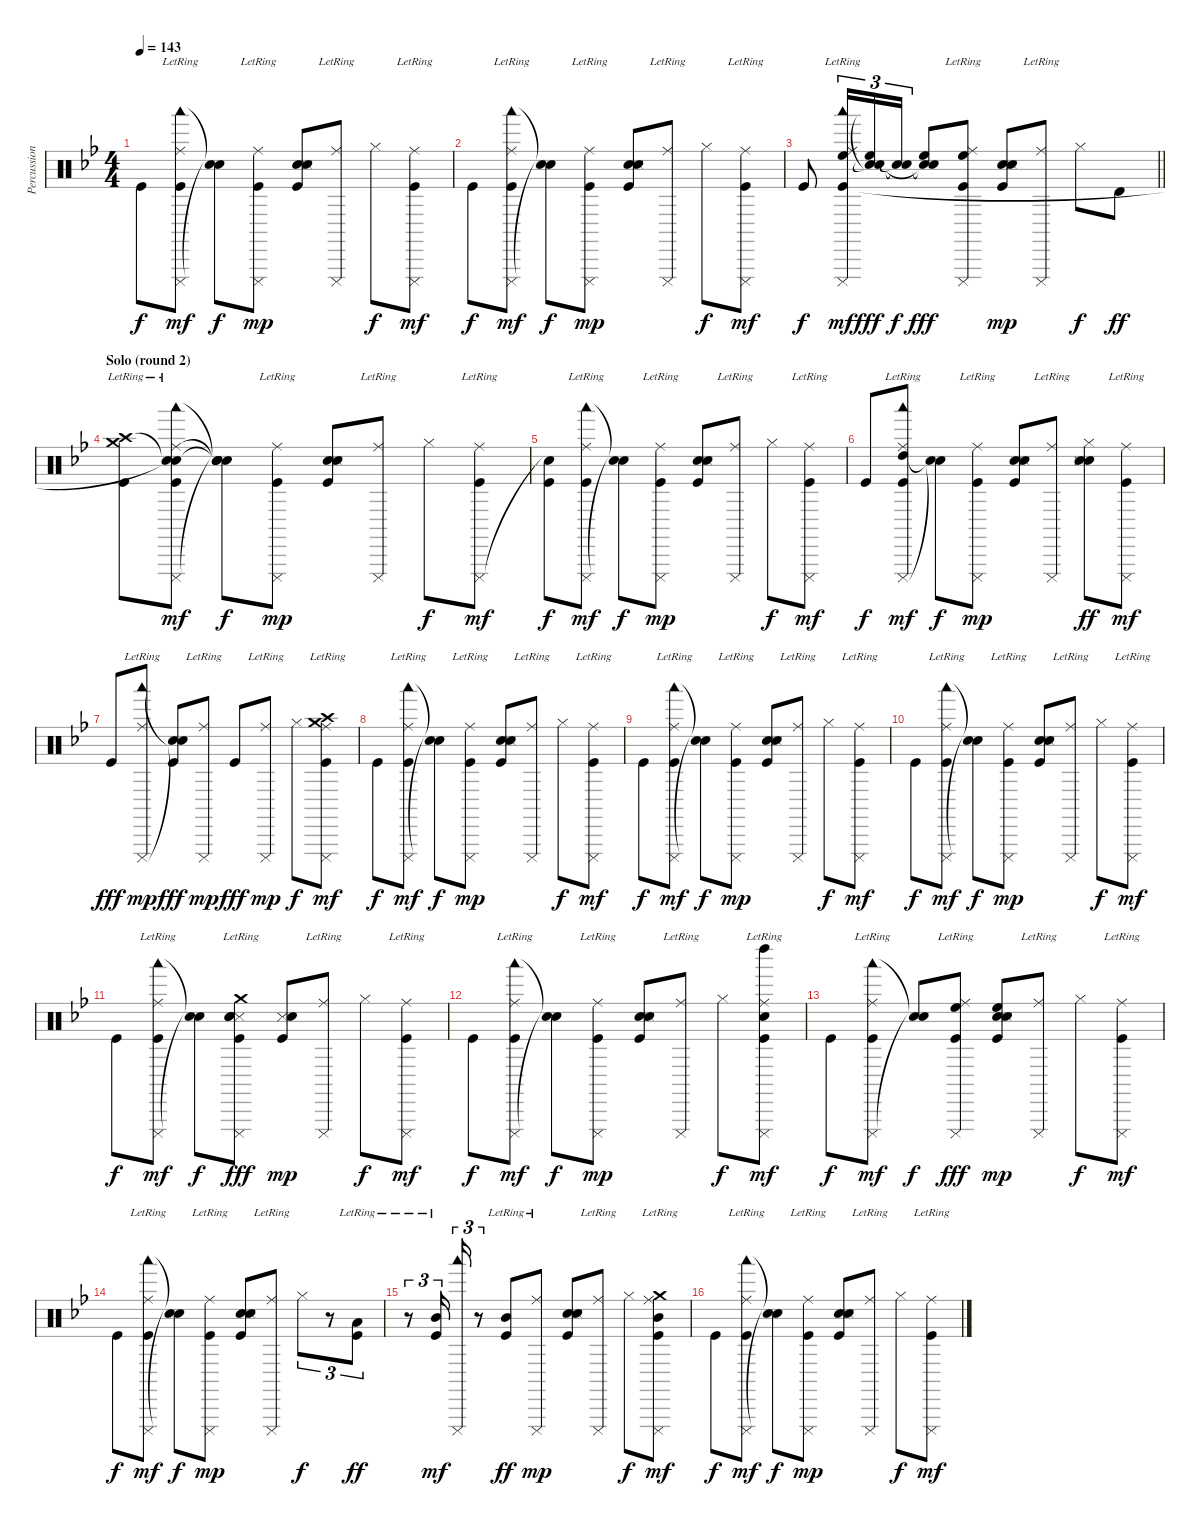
\track ("Percussion" "Percussion") {instrument percussion}
\staff {score}
\articulation defaults
\ts (4 4)
\tempo 143
\clef neutral
\ks gminor "Kick (hit)".8{dy f}
("Cuica (mute)" "Woodblock low (hit)" "Ride (middle)"{lr} "Kick (hit)").8{dy mf} ("Snare (hit)"{t} "Snare (hit)"{t}).8{dy f} ("Cuica (mute)" "Ride (middle)"{lr} "Kick (hit)").8{dy mp} ("Snare (hit) 2" "Snare (side stick) 3" "Snare (hit) 2" "Kick (hit)").8 ("Cuica (mute)" "Ride (middle)"{lr}).8 "Hi-Hat (closed)".8{dy f} ("Cuica (mute)" "Ride (middle)"{lr} "Kick (hit)").8{dy mf} |
"Kick (hit)".8{dy f} ("Cuica (mute)" "Woodblock low (hit)" "Ride (middle)"{lr} "Kick (hit)").8{dy mf} ("Snare (hit)"{t} "Snare (hit)"{t}).8{dy f} ("Cuica (mute)" "Ride (middle)"{lr} "Kick (hit)").8{dy mp} ("Snare (hit) 2" "Snare (side stick) 3" "Snare (hit) 2" "Kick (hit)").8 ("Cuica (mute)" "Ride (middle)"{lr}).8 "Hi-Hat (closed)".8{dy f} ("Cuica (mute)" "Ride (middle)"{lr} "Kick (hit)").8{dy mf} |
\barLineRight lightlight "Kick (hit)".8{dy f}
("Cuica (mute)" "High Floor Tom (hit)" "Woodblock low (hit)" "Ride (middle)"{lr} "Kick (hit)").16{tu (3 2) dy mf} ("High Floor Tom (hit)" "Snare (hit)"{t} "Snare (hit)"{t}).16{tu (3 2) dy fff} ("Snare (hit)"{t} "Snare (hit)"{t}).16{tu (3 2) dy f} ("High Floor Tom (hit)" "Snare (hit)"{t} "Snare (hit)"{t}).8{dy fff} ("Cuica (mute)" "High Floor Tom (hit)" "Ride (middle)"{lr} "Kick (hit)").8 ("Snare (hit) 2" "Snare (side stick) 3" "Snare (hit) 2" "Kick (hit)").8{dy mp} ("Cuica (mute)" "Ride (middle)"{lr}).8 "Hi-Hat (closed)".8{dy f} "Timbale high (hit)".8{dy ff} |
\section ("" "Solo (round 2)")
("Crash medium (hit)"{lr} "Crash high (hit)"{lr} "Kick (hit)").8 ("Cuica (mute)" "Snare (hit)"{t} "Woodblock low (hit)" "Ride (middle)"{lr} "Snare (hit)"{t} "Kick (hit)").8{dy mf} ("Snare (hit)"{t} "Snare (hit)"{t} "Snare (hit)"{t} "Snare (hit)"{t}).8{dy f} ("Cuica (mute)" "Ride (middle)"{lr} "Kick (hit)").8{dy mp} ("Snare (hit) 2" "Snare (side stick) 3" "Snare (hit) 2" "Kick (hit)").8 ("Cuica (mute)" "Ride (middle)"{lr}).8 "Hi-Hat (closed)".8{dy f} ("Cuica (mute)" "Ride (middle)"{lr} "Kick (hit)").8{dy mf} |
("Snare (hit)"{t} "Kick (hit)").8{dy f} ("Cuica (mute)" "Woodblock low (hit)" "Ride (middle)"{lr} "Kick (hit)").8{dy mf} ("Snare (hit)"{t} "Snare (hit)"{t}).8{dy f} ("Cuica (mute)" "Ride (middle)"{lr} "Kick (hit)").8{dy mp} ("Snare (hit) 2" "Snare (side stick) 3" "Snare (hit) 2" "Kick (hit)").8 ("Cuica (mute)" "Ride (middle)"{lr}).8 "Hi-Hat (closed)".8{dy f} ("Cuica (mute)" "Ride (middle)"{lr} "Kick (hit)").8{dy mf} |
"Kick (hit)".8{dy f} ("Cuica (mute)" "High Tom (hit)" "Woodblock low (hit)" "Ride (middle)"{lr} "Kick (hit)").8{dy mf} ("Snare (hit)"{t} "Snare (hit)"{t}).8{dy f} ("Cuica (mute)" "Ride (middle)"{lr} "Kick (hit)").8{dy mp} ("Snare (hit) 2" "Snare (side stick) 3" "Snare (hit) 2" "Kick (hit)").8 ("Cuica (mute)" "Ride (middle)"{lr}).8 ("Snare (hit) 2" "Snare (side stick) 3" "Snare (hit) 2" "Hi-Hat (closed)").8{dy ff} ("Cuica (mute)" "Ride (middle)"{lr} "Kick (hit)").8{dy mf} |
"Kick (hit)".8{dy fff} ("Cuica (mute)" "Woodblock low (hit)" "Ride (middle)"{lr}).8{dy mp} ("Snare (hit)"{t} "Snare (hit)"{t} "Kick (hit)").8{dy fff} ("Cuica (mute)" "Ride (middle)"{lr}).8{dy mp} "Kick (hit)".8{dy fff} ("Cuica (mute)" "Ride (middle)"{lr}).8{dy mp} "Hi-Hat (closed)".8{dy f} ("Cuica (mute)" "Crash medium (hit)"{lr} "Crash high (hit)"{lr} "Ride (middle)" "Kick (hit)").8{dy mf} |
"Kick (hit)".8{dy f} ("Cuica (mute)" "Woodblock low (hit)" "Ride (middle)"{lr} "Kick (hit)").8{dy mf} ("Snare (hit)"{t} "Snare (hit)"{t}).8{dy f} ("Cuica (mute)" "Ride (middle)"{lr} "Kick (hit)").8{dy mp} ("Snare (hit) 2" "Snare (side stick) 3" "Snare (hit) 2" "Kick (hit)").8 ("Cuica (mute)" "Ride (middle)"{lr}).8 "Hi-Hat (closed)".8{dy f} ("Cuica (mute)" "Ride (middle)"{lr} "Kick (hit)").8{dy mf} |
"Kick (hit)".8{dy f} ("Cuica (mute)" "Woodblock low (hit)" "Ride (middle)"{lr} "Kick (hit)").8{dy mf} ("Snare (hit)"{t} "Snare (hit)"{t}).8{dy f} ("Cuica (mute)" "Ride (middle)"{lr} "Kick (hit)").8{dy mp} ("Snare (hit) 2" "Snare (side stick) 3" "Snare (hit) 2" "Kick (hit)").8 ("Cuica (mute)" "Ride (middle)"{lr}).8 "Hi-Hat (closed)".8{dy f} ("Cuica (mute)" "Ride (middle)"{lr} "Kick (hit)").8{dy mf} |
"Kick (hit)".8{dy f} ("Cuica (mute)" "Woodblock low (hit)" "Ride (middle)"{lr} "Kick (hit)").8{dy mf} ("Snare (hit)"{t} "Snare (hit)"{t}).8{dy f} ("Cuica (mute)" "Ride (middle)"{lr} "Kick (hit)").8{dy mp} ("Snare (hit) 2" "Snare (side stick) 3" "Snare (hit) 2" "Kick (hit)").8 ("Cuica (mute)" "Ride (middle)"{lr}).8 "Hi-Hat (closed)".8{dy f} ("Cuica (mute)" "Ride (middle)"{lr} "Kick (hit)").8{dy mf} |
"Kick (hit)".8{dy f} ("Cuica (mute)" "Woodblock low (hit)" "Ride (middle)"{lr} "Kick (hit)").8{dy mf} ("Snare (hit)"{t} "Snare (hit)"{t}).8{dy f} ("Cuica (mute)" "Snare (side stick) 3" "Snare (hit) 2" "Crash medium (hit)"{lr} "Snare (hit) 2" "Kick (hit)").8{dy fff} ("Snare (side stick) 3" "Snare (hit) 2" "Kick (hit)").8{dy mp} ("Cuica (mute)" "Ride (middle)"{lr}).8 "Hi-Hat (closed)".8{dy f} ("Cuica (mute)" "Ride (middle)"{lr} "Kick (hit)").8{dy mf} |
"Kick (hit)".8{dy f} ("Cuica (mute)" "Woodblock low (hit)" "Ride (middle)"{lr} "Kick (hit)").8{dy mf} ("Snare (hit)"{t} "Snare (hit)"{t}).8{dy f} ("Cuica (mute)" "Ride (middle)"{lr} "Kick (hit)").8{dy mp} ("Snare (hit) 2" "Snare (side stick) 3" "Snare (hit) 2" "Kick (hit)").8 ("Cuica (mute)" "Ride (middle)"{lr}).8 "Hi-Hat (closed)".8{dy f} ("Cuica (mute)" "Hand Clap (hit)" "Left Maraca (hit)" "Ride (middle)"{lr} "Kick (hit)").8{dy mf} |
"Kick (hit)".8{dy f} ("Cuica (mute)" "Woodblock low (hit)" "Ride (middle)"{lr} "Kick (hit)").8{dy mf} ("Snare (hit)"{t} "Snare (hit)"{t}).8{dy f} ("Cuica (mute)" "Ride (middle)"{lr} "High Floor Tom (hit)" "Kick (hit)").8{dy fff} ("Snare (hit) 2" "Snare (side stick) 3" "Snare (hit) 2" "High Floor Tom (hit)" "Kick (hit)").8{dy mp} ("Cuica (mute)" "Ride (middle)"{lr}).8 "Hi-Hat (closed)".8{dy f} ("Cuica (mute)" "Ride (middle)"{lr} "Kick (hit)").8{dy mf} |
"Kick (hit)".8{dy f} ("Cuica (mute)" "Woodblock low (hit)" "Ride (middle)"{lr} "Kick (hit)").8{dy mf} ("Snare (hit)"{t} "Snare (hit)"{t}).8{dy f} ("Cuica (mute)" "Ride (middle)"{lr} "Kick (hit)").8{dy mp} ("Snare (hit) 2" "Snare (side stick) 3" "Snare (hit) 2" "Kick (hit)").8 ("Cuica (mute)" "Ride (middle)"{lr}).8 "Hi-Hat (closed)".8{tu (3 2) dy f} r.8{tu (3 2)} ("Low Tom (hit)"{lr} "Kick (hit)").8{tu (3 2) dy ff} |
r.8{tu (3 2)} ("Mid Tom (hit)"{lr} "Kick (hit)").16{tu (3 2) dy mf} ("Cuica (mute)" "Woodblock low (hit)").16{tu (3 2)} r.8{tu (3 2)} ("Mid Tom (hit)"{lr} "Kick (hit)").8{dy ff} ("Cuica (mute)" "Ride (middle)"{lr}).8{dy mp} ("Snare (hit) 2" "Snare (side stick) 3" "Snare (hit) 2" "Kick (hit)").8 ("Cuica (mute)" "Ride (middle)"{lr}).8 "Hi-Hat (closed)".8{dy f} ("Cuica (mute)" "Crash medium (hit)"{lr} "Ride (middle)"{lr} "Mid Tom (hit)" "Kick (hit)").8{dy mf} |
"Kick (hit)".8{dy f} ("Cuica (mute)" "Woodblock low (hit)" "Ride (middle)"{lr} "Kick (hit)").8{dy mf} ("Snare (hit)"{t} "Snare (hit)"{t}).8{dy f} ("Cuica (mute)" "Ride (middle)"{lr} "Kick (hit)").8{dy mp} ("Snare (hit) 2" "Snare (side stick) 3" "Snare (hit) 2" "Kick (hit)").8 ("Cuica (mute)" "Ride (middle)"{lr}).8 "Hi-Hat (closed)".8{dy f} ("Cuica (mute)" "Ride (middle)"{lr} "Kick (hit)").8{dy mf}
